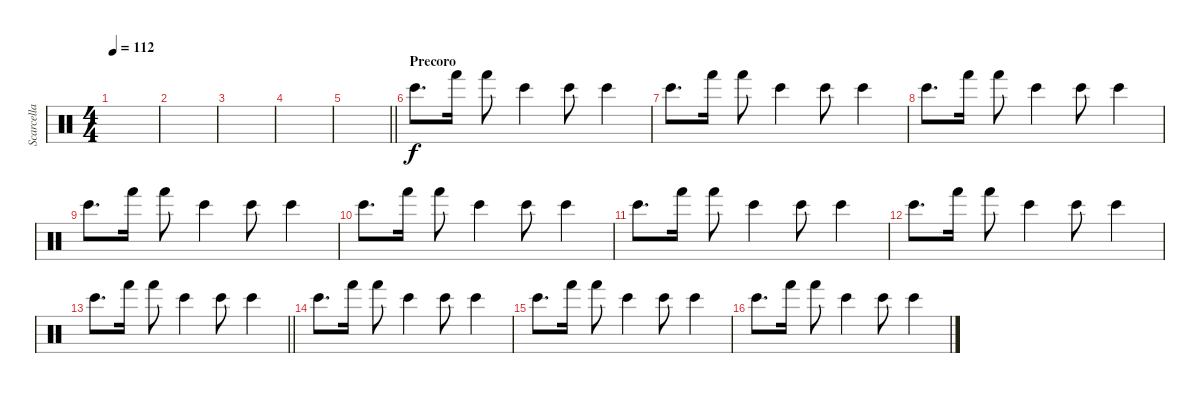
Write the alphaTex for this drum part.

\track ("Scarcella" "Scarcella") {instrument percussion}
\staff {score}
\articulation defaults
\ts (4 4)
\tempo 112
\clef neutral
\ks c
|
|
|
|
\barLineRight lightlight
|
\section ("" "Precoro")
"Bongo High (hit)".8{d} "Hand (hit)".16 "Hand (hit)".8 "Bongo High (hit)".4 "Bongo High (hit)".8 "Bongo High (hit)".4 |
"Bongo High (hit)".8{d} "Hand (hit)".16 "Hand (hit)".8 "Bongo High (hit)".4 "Bongo High (hit)".8 "Bongo High (hit)".4 |
"Bongo High (hit)".8{d} "Hand (hit)".16 "Hand (hit)".8 "Bongo High (hit)".4 "Bongo High (hit)".8 "Bongo High (hit)".4 |
"Bongo High (hit)".8{d} "Hand (hit)".16 "Hand (hit)".8 "Bongo High (hit)".4 "Bongo High (hit)".8 "Bongo High (hit)".4 |
"Bongo High (hit)".8{d} "Hand (hit)".16 "Hand (hit)".8 "Bongo High (hit)".4 "Bongo High (hit)".8 "Bongo High (hit)".4 |
"Bongo High (hit)".8{d} "Hand (hit)".16 "Hand (hit)".8 "Bongo High (hit)".4 "Bongo High (hit)".8 "Bongo High (hit)".4 |
"Bongo High (hit)".8{d} "Hand (hit)".16 "Hand (hit)".8 "Bongo High (hit)".4 "Bongo High (hit)".8 "Bongo High (hit)".4 |
\barLineRight lightlight "Bongo High (hit)".8{d} "Hand (hit)".16 "Hand (hit)".8 "Bongo High (hit)".4 "Bongo High (hit)".8 "Bongo High (hit)".4
|
"Bongo High (hit)".8{d} "Hand (hit)".16 "Hand (hit)".8 "Bongo High (hit)".4 "Bongo High (hit)".8 "Bongo High (hit)".4 |
"Bongo High (hit)".8{d} "Hand (hit)".16 "Hand (hit)".8 "Bongo High (hit)".4 "Bongo High (hit)".8 "Bongo High (hit)".4 |
"Bongo High (hit)".8{d} "Hand (hit)".16 "Hand (hit)".8 "Bongo High (hit)".4 "Bongo High (hit)".8 "Bongo High (hit)".4
